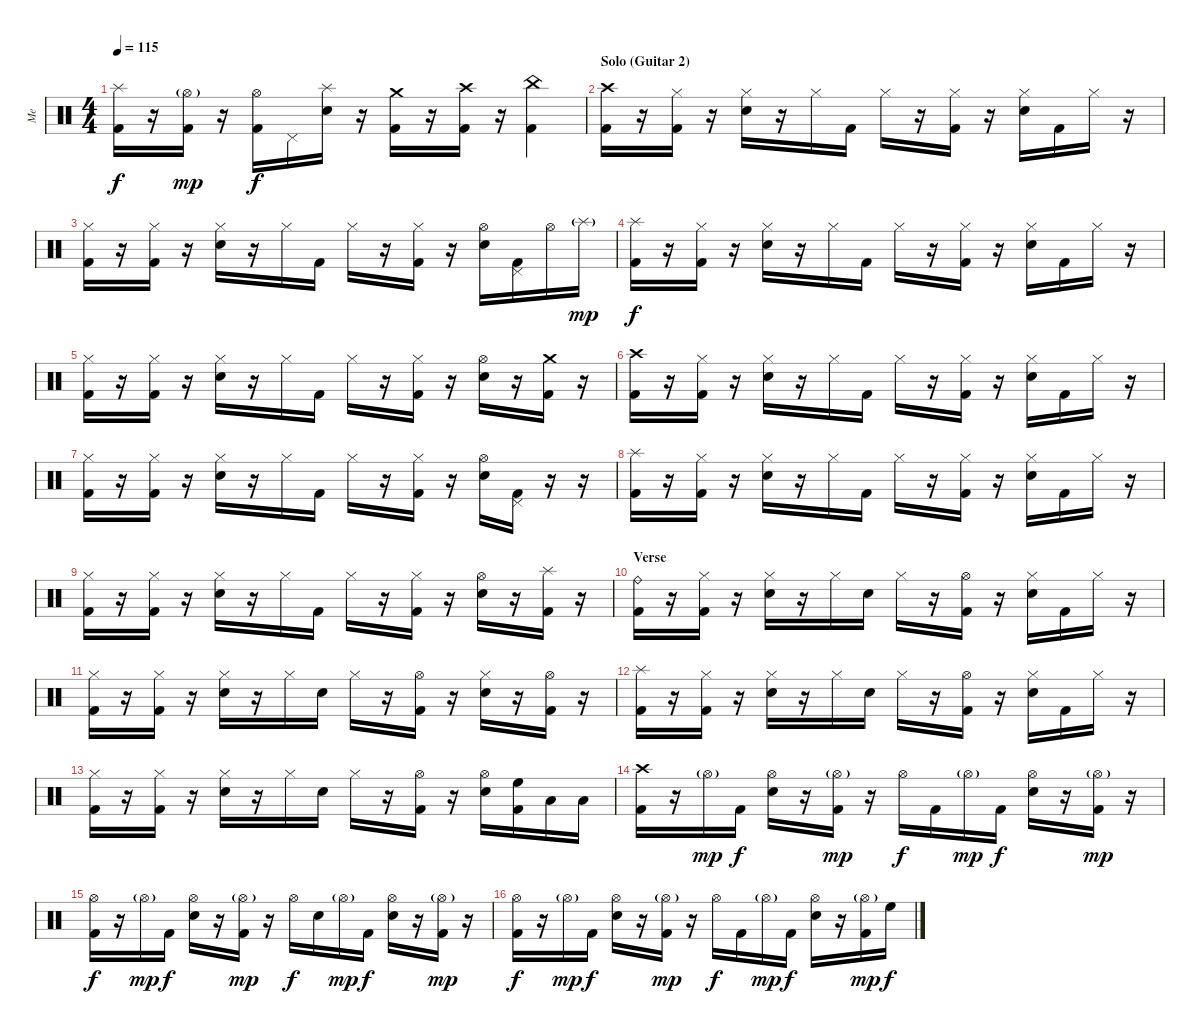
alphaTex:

\track ("Me" "Me") {instrument percussion}
\staff {score}
\articulation defaults
\ts (4 4)
\tempo 115
\clef neutral
\ks c
("Splash (hit)" "Kick (hit) 2").16{dy f} r.16 ("Hi-Hat (open)"{g} "Kick (hit) 2").16{dy mp} r.16 ("Hi-Hat (open)" "Kick (hit) 2").16{dy f} "Pedal Hi-Hat (hit)".16 ("Splash (hit)" "Electric Snare (hit)").16 r.16 ("Crash medium (hit)" "Kick (hit) 2").16 r.16 ("Crash high (hit)" "Kick (hit) 2").16 r.16 ("China (hit)" "Kick (hit) 2").4 |
\section ("" "Solo (Guitar 2)")
("Crash high (hit)" "Kick (hit) 2").16 r.16 ("Hi-Hat (closed)" "Kick (hit) 2").16 r.16 ("Hi-Hat (closed)" "Electric Snare (hit)").16 r.16 "Hi-Hat (closed)".16 "Kick (hit) 2".16 "Hi-Hat (closed)".16 r.16 ("Hi-Hat (closed)" "Kick (hit) 2").16 r.16 ("Hi-Hat (closed)" "Electric Snare (hit)").16 "Kick (hit) 2".16 "Hi-Hat (closed)".16 r.16 |
("Hi-Hat (closed)" "Kick (hit) 2").16 r.16 ("Hi-Hat (closed)" "Kick (hit) 2").16 r.16 ("Hi-Hat (closed)" "Electric Snare (hit)").16 r.16 "Hi-Hat (closed)".16 "Kick (hit) 2".16 "Hi-Hat (closed)".16 r.16 ("Hi-Hat (closed)" "Kick (hit) 2").16 r.16 ("Hi-Hat (open)" "Electric Snare (hit)").16 ("Pedal Hi-Hat (hit)" "Kick (hit) 2").16 "Hi-Hat (open)".16 "Splash (hit)"{g}.16{dy mp} |
("Splash (hit)" "Kick (hit) 2").16{dy f} r.16 ("Hi-Hat (closed)" "Kick (hit) 2").16 r.16 ("Hi-Hat (closed)" "Electric Snare (hit)").16 r.16 "Hi-Hat (closed)".16 "Kick (hit) 2".16 "Hi-Hat (closed)".16 r.16 ("Hi-Hat (closed)" "Kick (hit) 2").16 r.16 ("Hi-Hat (closed)" "Electric Snare (hit)").16 "Kick (hit) 2".16 "Hi-Hat (closed)".16 r.16 |
("Hi-Hat (closed)" "Kick (hit) 2").16 r.16 ("Hi-Hat (closed)" "Kick (hit) 2").16 r.16 ("Hi-Hat (closed)" "Electric Snare (hit)").16 r.16 "Hi-Hat (closed)".16 "Kick (hit) 2".16 "Hi-Hat (closed)".16 r.16 ("Hi-Hat (closed)" "Kick (hit) 2").16 r.16 ("Hi-Hat (open)" "Electric Snare (hit)").16 r.16 ("Crash medium (hit)" "Kick (hit) 2").16 r.16 |
("Crash high (hit)" "Kick (hit) 2").16 r.16 ("Hi-Hat (closed)" "Kick (hit) 2").16 r.16 ("Hi-Hat (closed)" "Electric Snare (hit)").16 r.16 "Hi-Hat (closed)".16 "Kick (hit) 2".16 "Hi-Hat (closed)".16 r.16 ("Hi-Hat (closed)" "Kick (hit) 2").16 r.16 ("Hi-Hat (closed)" "Electric Snare (hit)").16 "Kick (hit) 2".16 "Hi-Hat (closed)".16 r.16 |
("Hi-Hat (closed)" "Kick (hit) 2").16 r.16 ("Hi-Hat (closed)" "Kick (hit) 2").16 r.16 ("Hi-Hat (closed)" "Electric Snare (hit)").16 r.16 "Hi-Hat (closed)".16 "Kick (hit) 2".16 "Hi-Hat (closed)".16 r.16 ("Hi-Hat (closed)" "Kick (hit) 2").16 r.16 ("Hi-Hat (open)" "Electric Snare (hit)").16 ("Pedal Hi-Hat (hit)" "Kick (hit) 2").16 r.16 r.16 |
("Splash (hit)" "Kick (hit) 2").16 r.16 ("Hi-Hat (closed)" "Kick (hit) 2").16 r.16 ("Hi-Hat (closed)" "Electric Snare (hit)").16 r.16 "Hi-Hat (closed)".16 "Kick (hit) 2".16 "Hi-Hat (closed)".16 r.16 ("Hi-Hat (closed)" "Kick (hit) 2").16 r.16 ("Hi-Hat (closed)" "Electric Snare (hit)").16 "Kick (hit) 2".16 "Hi-Hat (closed)".16 r.16 |
("Hi-Hat (closed)" "Kick (hit) 2").16 r.16 ("Hi-Hat (closed)" "Kick (hit) 2").16 r.16 ("Hi-Hat (closed)" "Electric Snare (hit)").16 r.16 "Hi-Hat (closed)".16 "Kick (hit) 2".16 "Hi-Hat (closed)".16 r.16 ("Hi-Hat (closed)" "Kick (hit) 2").16 r.16 ("Hi-Hat (open)" "Electric Snare (hit)").16 r.16 ("Splash (hit)" "Kick (hit) 2").16 r.16 |
\section ("" "Verse")
("Ride (bell)" "Kick (hit) 2").16 r.16 ("Hi-Hat (closed)" "Kick (hit) 2").16 r.16 ("Hi-Hat (closed)" "Electric Snare (hit)").16 r.16 "Hi-Hat (closed)".16 "Electric Snare (hit)".16 "Hi-Hat (closed)".16 r.16 ("Hi-Hat (open)" "Kick (hit) 2").16 r.16 ("Hi-Hat (closed)" "Electric Snare (hit)").16 "Kick (hit) 2".16 "Hi-Hat (closed)".16 r.16 |
("Hi-Hat (closed)" "Kick (hit) 2").16 r.16 ("Hi-Hat (closed)" "Kick (hit) 2").16 r.16 ("Hi-Hat (closed)" "Electric Snare (hit)").16 r.16 "Hi-Hat (closed)".16 "Electric Snare (hit)".16 "Hi-Hat (closed)".16 r.16 ("Hi-Hat (open)" "Kick (hit) 2").16 r.16 ("Hi-Hat (closed)" "Electric Snare (hit)").16 r.16 ("Hi-Hat (open)" "Kick (hit) 2").16 r.16 |
("Splash (hit)" "Kick (hit) 2").16 r.16 ("Hi-Hat (closed)" "Kick (hit) 2").16 r.16 ("Hi-Hat (closed)" "Electric Snare (hit)").16 r.16 "Hi-Hat (closed)".16 "Electric Snare (hit)".16 "Hi-Hat (closed)".16 r.16 ("Hi-Hat (open)" "Kick (hit) 2").16 r.16 ("Hi-Hat (closed)" "Electric Snare (hit)").16 "Kick (hit) 2".16 "Hi-Hat (closed)".16 r.16 |
("Hi-Hat (closed)" "Kick (hit) 2").16 r.16 ("Hi-Hat (closed)" "Kick (hit) 2").16 r.16 ("Hi-Hat (closed)" "Electric Snare (hit)").16 r.16 "Hi-Hat (closed)".16 "Electric Snare (hit)".16 "Hi-Hat (closed)".16 r.16 ("Hi-Hat (open)" "Kick (hit) 2").16 r.16 ("Hi-Hat (open)" "Electric Snare (hit)").16 ("High Floor Tom (hit)" "Kick (hit) 2").16 "Low Tom (hit)".16 "Low Floor Tom (hit)".16 |
("Crash high (hit)" "Kick (hit) 2").16 r.16 "Hi-Hat (open)"{g}.16{dy mp} "Kick (hit) 2".16{dy f} ("Hi-Hat (open)" "Electric Snare (hit)").16 r.16 ("Hi-Hat (open)"{g} "Kick (hit) 2").16{dy mp} r.16 "Hi-Hat (open)".16{dy f} "Kick (hit) 2".16 "Hi-Hat (open)"{g}.16{dy mp} "Kick (hit) 2".16{dy f} ("Hi-Hat (open)" "Electric Snare (hit)").16 r.16 ("Hi-Hat (open)"{g} "Kick (hit) 2").16{dy mp} r.16 |
("Hi-Hat (open)" "Kick (hit) 2").16{dy f} r.16 "Hi-Hat (open)"{g}.16{dy mp} "Kick (hit) 2".16{dy f} ("Hi-Hat (open)" "Electric Snare (hit)").16 r.16 ("Hi-Hat (open)"{g} "Kick (hit) 2").16{dy mp} r.16 "Hi-Hat (open)".16{dy f} "Electric Snare (hit)".16 "Hi-Hat (open)"{g}.16{dy mp} "Kick (hit) 2".16{dy f} ("Hi-Hat (open)" "Electric Snare (hit)").16 r.16 ("Hi-Hat (open)"{g} "Kick (hit) 2").16{dy mp} r.16 |
("Hi-Hat (open)" "Kick (hit) 2").16{dy f} r.16 "Hi-Hat (open)"{g}.16{dy mp} "Kick (hit) 2".16{dy f} ("Hi-Hat (open)" "Electric Snare (hit)").16 r.16 ("Hi-Hat (open)"{g} "Kick (hit) 2").16{dy mp} r.16 "Hi-Hat (open)".16{dy f} "Kick (hit) 2".16 "Hi-Hat (open)"{g}.16{dy mp} "Kick (hit) 2".16{dy f} ("Hi-Hat (open)" "Electric Snare (hit)").16 r.16 ("Hi-Hat (open)"{g} "Kick (hit) 2").16{dy mp} "High Floor Tom (hit)".16{dy f}
